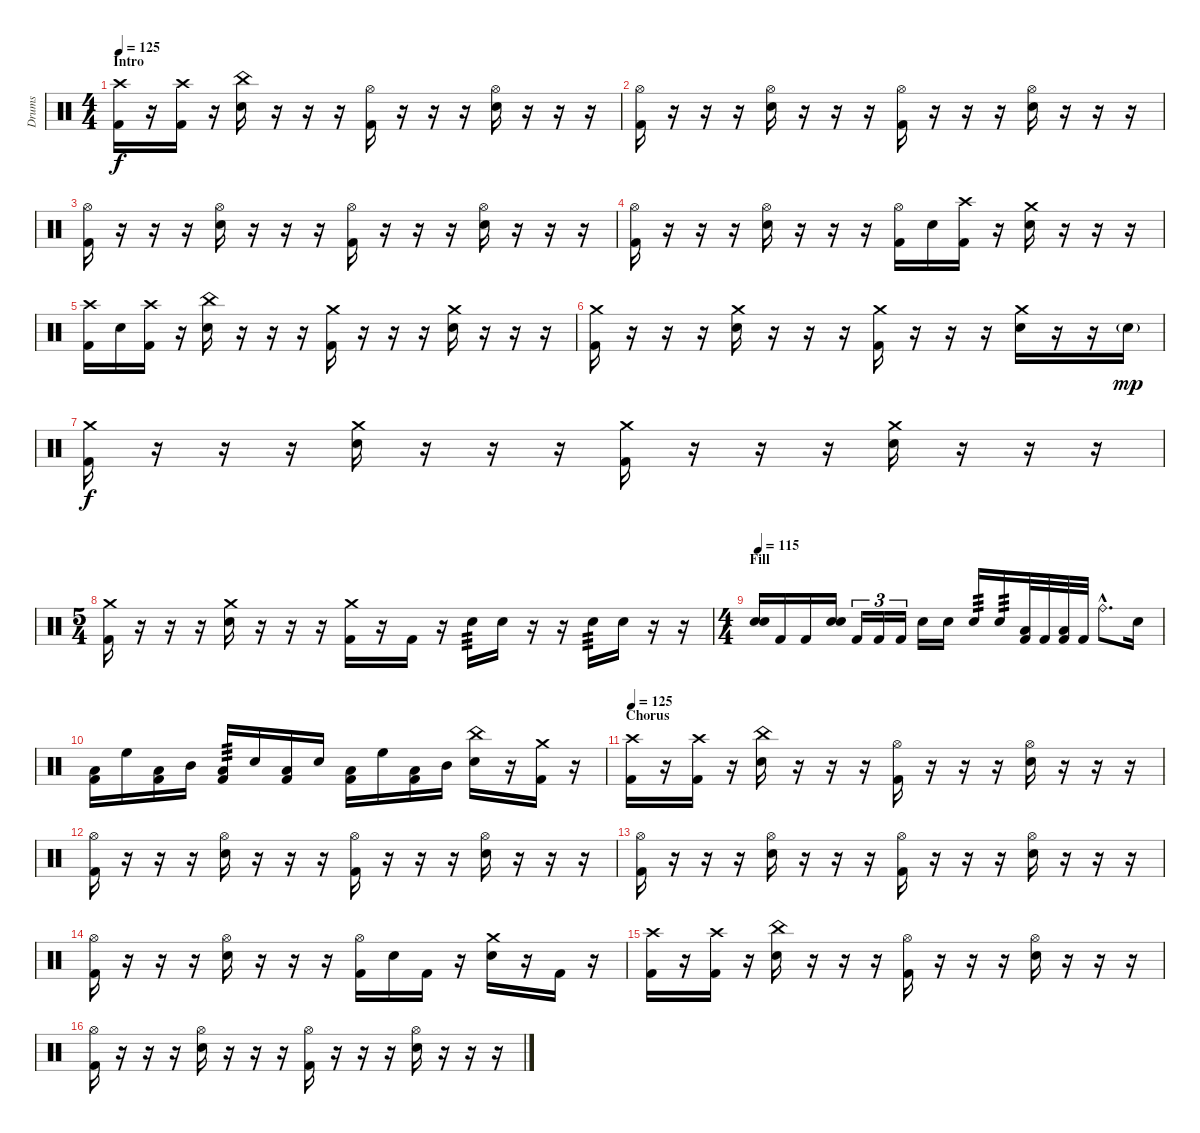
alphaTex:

\track ("Drums" "Drums") {instrument percussion}
\staff {score}
\articulation defaults
\ts (4 4)
\section ("" "Intro")
\tempo 125
\clef neutral
\ks c
("Crash high (hit)" "Kick (hit) 2").16{dy f} r.16 ("Crash high (hit)" "Kick (hit) 2").16 r.16 ("China (hit)" "Electric Snare (hit)").16 r.16 r.16 r.16 ("Hi-Hat (open)" "Kick (hit) 2").16 r.16 r.16 r.16 ("Hi-Hat (open)" "Electric Snare (hit)").16 r.16 r.16 r.16 |
("Hi-Hat (open)" "Kick (hit) 2").16 r.16 r.16 r.16 ("Hi-Hat (open)" "Electric Snare (hit)").16 r.16 r.16 r.16 ("Hi-Hat (open)" "Kick (hit) 2").16 r.16 r.16 r.16 ("Hi-Hat (open)" "Electric Snare (hit)").16 r.16 r.16 r.16 |
("Hi-Hat (open)" "Kick (hit) 2").16 r.16 r.16 r.16 ("Hi-Hat (open)" "Electric Snare (hit)").16 r.16 r.16 r.16 ("Hi-Hat (open)" "Kick (hit) 2").16 r.16 r.16 r.16 ("Hi-Hat (open)" "Electric Snare (hit)").16 r.16 r.16 r.16 |
("Hi-Hat (open)" "Kick (hit) 2").16 r.16 r.16 r.16 ("Hi-Hat (open)" "Electric Snare (hit)").16 r.16 r.16 r.16 ("Hi-Hat (open)" "Kick (hit) 2").16 "Electric Snare (hit)".16 ("Crash high (hit)" "Kick (hit) 2").16 r.16 ("Crash medium (hit)" "Electric Snare (hit)").16 r.16 r.16 r.16 |
("Crash high (hit)" "Kick (hit) 2").16 "Electric Snare (hit)".16 ("Crash high (hit)" "Kick (hit) 2").16 r.16 ("China (hit)" "Electric Snare (hit)").16 r.16 r.16 r.16 ("Crash medium (hit)" "Kick (hit) 2").16 r.16 r.16 r.16 ("Crash medium (hit)" "Electric Snare (hit)").16 r.16 r.16 r.16 |
("Crash medium (hit)" "Kick (hit) 2").16 r.16 r.16 r.16 ("Crash medium (hit)" "Electric Snare (hit)").16 r.16 r.16 r.16 ("Crash medium (hit)" "Kick (hit) 2").16 r.16 r.16 r.16 ("Crash medium (hit)" "Electric Snare (hit)").16 r.16 r.16 "Electric Snare (hit)"{g}.16{dy mp} |
("Crash medium (hit)" "Kick (hit) 2").16{dy f} r.16 r.16 r.16 ("Crash medium (hit)" "Electric Snare (hit)").16 r.16 r.16 r.16 ("Crash medium (hit)" "Kick (hit) 2").16 r.16 r.16 r.16 ("Crash medium (hit)" "Electric Snare (hit)").16 r.16 r.16 r.16 |
\ts (5 4)
("Crash medium (hit)" "Kick (hit) 2").16 r.16 r.16 r.16 ("Crash medium (hit)" "Electric Snare (hit)").16 r.16 r.16 r.16 ("Crash medium (hit)" "Kick (hit) 2").16 r.16 "Kick (hit) 2".16 r.16 "Electric Snare (hit)".16{tp 3} "Electric Snare (hit)".16 r.16 r.16 "Electric Snare (hit)".16{tp 3} "Electric Snare (hit)".16 r.16 r.16 |
\ts (4 4)
\section ("" "Fill")
\tempo 115
("Electric Snare (hit)" "Electric Snare (hit)").16 "Kick (hit) 2".16 "Kick (hit) 2".16 ("Electric Snare (hit)" "Electric Snare (hit)").16 "Kick (hit) 2".16{tu (3 2)} "Kick (hit) 2".16{tu (3 2)} "Kick (hit) 2".16{tu (3 2)} "Electric Snare (hit)".16 "Electric Snare (hit)".16 "Electric Snare (hit)".16{tp 3} "Electric Snare (hit)".16{tp 3} ("Low Tom (hit)" "Kick (hit) 2").32 "Kick (hit) 2".32 ("Low Tom (hit)" "Kick (hit) 2").32 "Kick (hit) 2".32 "Ride (bell)"{hac}.8{d} "Electric Snare (hit)".16 |
("Low Tom (hit)" "Kick (hit) 2").16 "High Floor Tom (hit)".16 ("Low Tom (hit)" "Kick (hit) 2").16 "Mid Tom (hit)".16 ("Low Tom (hit)" "Kick (hit) 2").16{tp 3} "Electric Snare (hit)".16 ("Low Tom (hit)" "Kick (hit) 2").16 "Electric Snare (hit)".16 ("Low Tom (hit)" "Kick (hit) 2").16 "High Floor Tom (hit)".16 ("Low Tom (hit)" "Kick (hit) 2").16 "Mid Tom (hit)".16 ("China (hit)" "Electric Snare (hit)").16 r.16 ("Crash medium (hit)" "Kick (hit) 2").16 r.16 |
\section ("" "Chorus")
\tempo 125
("Crash high (hit)" "Kick (hit) 2").16 r.16 ("Crash high (hit)" "Kick (hit) 2").16 r.16 ("China (hit)" "Electric Snare (hit)").16 r.16 r.16 r.16 ("Hi-Hat (open)" "Kick (hit) 2").16 r.16 r.16 r.16 ("Hi-Hat (open)" "Electric Snare (hit)").16 r.16 r.16 r.16 |
("Hi-Hat (open)" "Kick (hit) 2").16 r.16 r.16 r.16 ("Hi-Hat (open)" "Electric Snare (hit)").16 r.16 r.16 r.16 ("Hi-Hat (open)" "Kick (hit) 2").16 r.16 r.16 r.16 ("Hi-Hat (open)" "Electric Snare (hit)").16 r.16 r.16 r.16 |
("Hi-Hat (open)" "Kick (hit) 2").16 r.16 r.16 r.16 ("Hi-Hat (open)" "Electric Snare (hit)").16 r.16 r.16 r.16 ("Hi-Hat (open)" "Kick (hit) 2").16 r.16 r.16 r.16 ("Hi-Hat (open)" "Electric Snare (hit)").16 r.16 r.16 r.16 |
("Hi-Hat (open)" "Kick (hit) 2").16 r.16 r.16 r.16 ("Hi-Hat (open)" "Electric Snare (hit)").16 r.16 r.16 r.16 ("Hi-Hat (open)" "Kick (hit) 2").16 "Electric Snare (hit)".16 "Kick (hit) 2".16 r.16 ("Crash medium (hit)" "Electric Snare (hit)").16 r.16 "Kick (hit) 2".16 r.16 |
("Crash high (hit)" "Kick (hit) 2").16 r.16 ("Crash high (hit)" "Kick (hit) 2").16 r.16 ("China (hit)" "Electric Snare (hit)").16 r.16 r.16 r.16 ("Hi-Hat (open)" "Kick (hit) 2").16 r.16 r.16 r.16 ("Hi-Hat (open)" "Electric Snare (hit)").16 r.16 r.16 r.16 |
("Hi-Hat (open)" "Kick (hit) 2").16 r.16 r.16 r.16 ("Hi-Hat (open)" "Electric Snare (hit)").16 r.16 r.16 r.16 ("Hi-Hat (open)" "Kick (hit) 2").16 r.16 r.16 r.16 ("Hi-Hat (open)" "Electric Snare (hit)").16 r.16 r.16 r.16
